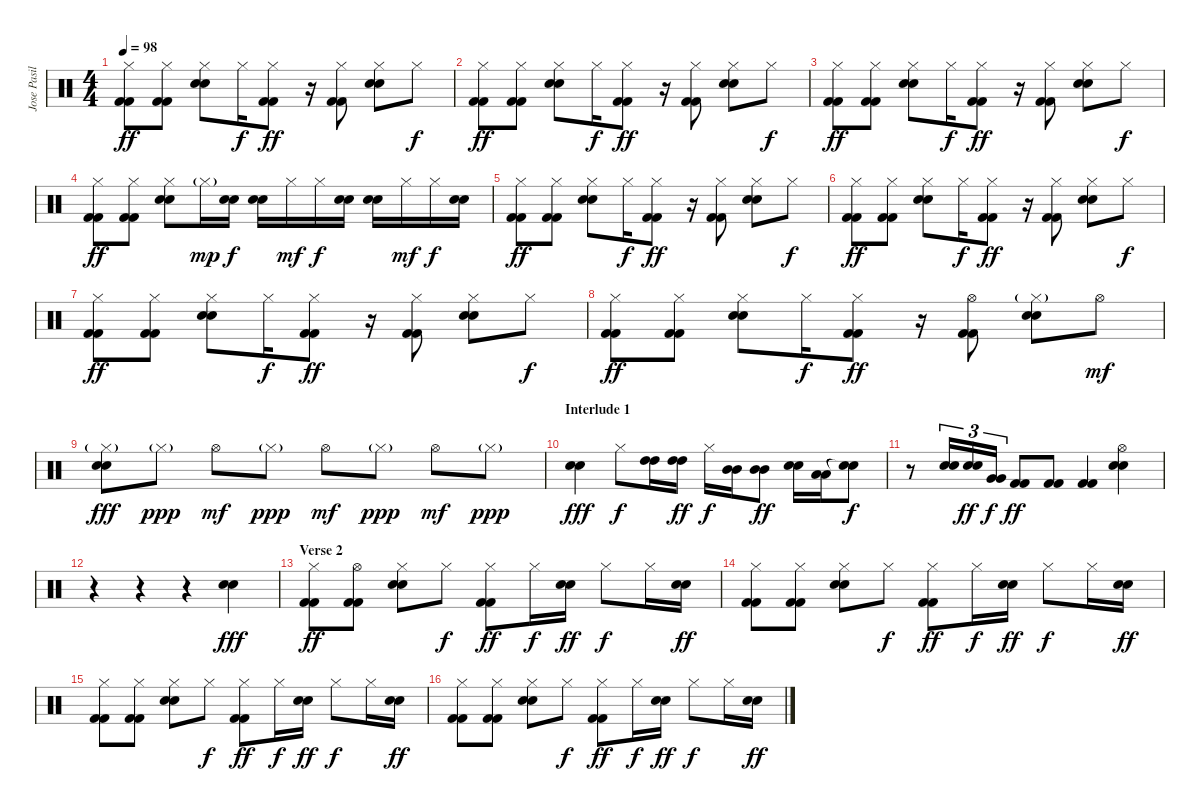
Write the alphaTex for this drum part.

\track ("Jose Pasillas - Drums" "Jose Pasil") {instrument percussion}
\staff {score}
\articulation defaults
\ts (4 4)
\tempo 98
\clef neutral
\ks c
("Hi-Hat (closed)" "Kick (hit) 2" "Kick (hit) 2").8{dy ff} ("Hi-Hat (closed)" "Kick (hit) 2" "Kick (hit) 2").8 ("Hi-Hat (closed)" "Electric Snare (hit)" "Electric Snare (hit)").8 "Hi-Hat (closed)".16{dy f} ("Hi-Hat (closed)" "Kick (hit) 2" "Kick (hit) 2").8{dy ff} r.16 ("Hi-Hat (closed)" "Kick (hit) 2" "Kick (hit) 2").8 ("Hi-Hat (closed)" "Electric Snare (hit)" "Electric Snare (hit)").8 "Hi-Hat (closed)".8{dy f} |
("Hi-Hat (closed)" "Kick (hit) 2" "Kick (hit) 2").8{dy ff} ("Hi-Hat (closed)" "Kick (hit) 2" "Kick (hit) 2").8 ("Hi-Hat (closed)" "Electric Snare (hit)" "Electric Snare (hit)").8 "Hi-Hat (closed)".16{dy f} ("Hi-Hat (closed)" "Kick (hit) 2" "Kick (hit) 2").8{dy ff} r.16 ("Hi-Hat (closed)" "Kick (hit) 2" "Kick (hit) 2").8 ("Hi-Hat (closed)" "Electric Snare (hit)" "Electric Snare (hit)").8 "Hi-Hat (closed)".8{dy f} |
("Hi-Hat (closed)" "Kick (hit) 2" "Kick (hit) 2").8{dy ff} ("Hi-Hat (closed)" "Kick (hit) 2" "Kick (hit) 2").8 ("Hi-Hat (closed)" "Electric Snare (hit)" "Electric Snare (hit)").8 "Hi-Hat (closed)".16{dy f} ("Hi-Hat (closed)" "Kick (hit) 2" "Kick (hit) 2").8{dy ff} r.16 ("Hi-Hat (closed)" "Kick (hit) 2" "Kick (hit) 2").8 ("Hi-Hat (closed)" "Electric Snare (hit)" "Electric Snare (hit)").8 "Hi-Hat (closed)".8{dy f} |
("Hi-Hat (closed)" "Kick (hit) 2" "Kick (hit) 2").8{dy ff} ("Hi-Hat (closed)" "Kick (hit) 2" "Kick (hit) 2").8 ("Hi-Hat (closed)" "Electric Snare (hit)" "Electric Snare (hit)").8 "Hi-Hat (closed)"{g}.16{dy mp} ("Electric Snare (hit)" "Electric Snare (hit)").16{dy f} ("Electric Snare (hit)" "Electric Snare (hit)").16 "Hi-Hat (closed)".16{dy mf} "Hi-Hat (closed)".16{dy f} ("Electric Snare (hit)" "Electric Snare (hit)").16 ("Electric Snare (hit)" "Electric Snare (hit)").16 "Hi-Hat (closed)".16{dy mf} "Hi-Hat (closed)".16{dy f} ("Electric Snare (hit)" "Electric Snare (hit)").16 |
("Hi-Hat (closed)" "Kick (hit) 2" "Kick (hit) 2").8{dy ff} ("Hi-Hat (closed)" "Kick (hit) 2" "Kick (hit) 2").8 ("Hi-Hat (closed)" "Electric Snare (hit)" "Electric Snare (hit)").8 "Hi-Hat (closed)".16{dy f} ("Hi-Hat (closed)" "Kick (hit) 2" "Kick (hit) 2").8{dy ff} r.16 ("Hi-Hat (closed)" "Kick (hit) 2" "Kick (hit) 2").8 ("Hi-Hat (closed)" "Electric Snare (hit)" "Electric Snare (hit)").8 "Hi-Hat (closed)".8{dy f} |
("Hi-Hat (closed)" "Kick (hit) 2" "Kick (hit) 2").8{dy ff} ("Hi-Hat (closed)" "Kick (hit) 2" "Kick (hit) 2").8 ("Hi-Hat (closed)" "Electric Snare (hit)" "Electric Snare (hit)").8 "Hi-Hat (closed)".16{dy f} ("Hi-Hat (closed)" "Kick (hit) 2" "Kick (hit) 2").8{dy ff} r.16 ("Hi-Hat (closed)" "Kick (hit) 2" "Kick (hit) 2").8 ("Hi-Hat (closed)" "Electric Snare (hit)" "Electric Snare (hit)").8 "Hi-Hat (closed)".8{dy f} |
("Hi-Hat (closed)" "Kick (hit) 2" "Kick (hit) 2").8{dy ff} ("Hi-Hat (closed)" "Kick (hit) 2" "Kick (hit) 2").8 ("Hi-Hat (closed)" "Electric Snare (hit)" "Electric Snare (hit)").8 "Hi-Hat (closed)".16{dy f} ("Hi-Hat (closed)" "Kick (hit) 2" "Kick (hit) 2").8{dy ff} r.16 ("Hi-Hat (closed)" "Kick (hit) 2" "Kick (hit) 2").8 ("Hi-Hat (closed)" "Electric Snare (hit)" "Electric Snare (hit)").8 "Hi-Hat (closed)".8{dy f} |
("Hi-Hat (closed)" "Kick (hit) 2" "Kick (hit) 2").8{dy ff} ("Hi-Hat (closed)" "Kick (hit) 2" "Kick (hit) 2").8 ("Hi-Hat (closed)" "Electric Snare (hit)" "Electric Snare (hit)").8 "Hi-Hat (closed)".16{dy f} ("Hi-Hat (closed)" "Kick (hit) 2" "Kick (hit) 2").8{dy ff} r.16 ("Hi-Hat (open)" "Kick (hit) 2" "Kick (hit) 2").8 ("Hi-Hat (closed)"{g} "Electric Snare (hit)" "Electric Snare (hit)").8 "Hi-Hat (open)".8{dy mf} |
("Hi-Hat (closed)"{g} "Electric Snare (hit)" "Electric Snare (hit)").8{dy fff} "Hi-Hat (closed)"{g}.8{dy ppp} "Hi-Hat (open)".8{dy mf} "Hi-Hat (closed)"{g}.8{dy ppp} "Hi-Hat (open)".8{dy mf} "Hi-Hat (closed)"{g}.8{dy ppp} "Hi-Hat (open)".8{dy mf} "Hi-Hat (closed)"{g}.8{dy ppp} |
\section ("" "Interlude 1")
("Electric Snare (hit)" "Electric Snare (hit)").4{dy fff} "Hi-Hat (closed)".8{dy f} ("High Tom (hit)" "High Tom (hit)").16 ("High Tom (hit)" "High Tom (hit)").16{dy ff} "Hi-Hat (closed)".16{dy f} ("Mid Tom (hit)" "Mid Tom (hit)").16 ("Mid Tom (hit)" "Mid Tom (hit)").8{dy ff} ("Electric Snare (hit)" "Electric Snare (hit)").16 ("Low Tom (hit)" "Low Tom (hit)").16 ("Snare (hit)"{t} "Snare (hit)"{t}).8{dy f} |
r.8 ("Electric Snare (hit)" "Electric Snare (hit)").16{tu (3 2)} ("Electric Snare (hit)" "Electric Snare (hit)").16{tu (3 2) dy ff} ("Very Low Tom (hit)" "Very Low Tom (hit)").16{tu (3 2) dy f} ("Kick (hit) 2" "Kick (hit) 2").8{dy ff} ("Kick (hit) 2" "Kick (hit) 2").8 ("Kick (hit) 2" "Kick (hit) 2").4 ("Hi-Hat (open)" "Electric Snare (hit)" "Electric Snare (hit)").4 |
r.4 r.4 r.4 ("Electric Snare (hit)" "Electric Snare (hit)").4{dy fff} |
\section ("" "Verse 2")
("Hi-Hat (closed)" "Kick (hit) 2" "Kick (hit) 2").8{dy ff} ("Hi-Hat (open)" "Kick (hit) 2" "Kick (hit) 2").8 ("Hi-Hat (closed)" "Electric Snare (hit)" "Electric Snare (hit)").8 "Hi-Hat (closed)".8{dy f} ("Hi-Hat (closed)" "Kick (hit) 2" "Kick (hit) 2").8{dy ff} "Hi-Hat (closed)".16{dy f} ("Electric Snare (hit)" "Electric Snare (hit)").16{dy ff} "Hi-Hat (closed)".8{dy f} "Hi-Hat (closed)".16 ("Electric Snare (hit)" "Electric Snare (hit)").16{dy ff} |
("Hi-Hat (closed)" "Kick (hit) 2" "Kick (hit) 2").8 ("Hi-Hat (closed)" "Kick (hit) 2" "Kick (hit) 2").8 ("Hi-Hat (closed)" "Electric Snare (hit)" "Electric Snare (hit)").8 "Hi-Hat (closed)".8{dy f} ("Hi-Hat (closed)" "Kick (hit) 2" "Kick (hit) 2").8{dy ff} "Hi-Hat (closed)".16{dy f} ("Electric Snare (hit)" "Electric Snare (hit)").16{dy ff} "Hi-Hat (closed)".8{dy f} "Hi-Hat (closed)".16 ("Electric Snare (hit)" "Electric Snare (hit)").16{dy ff} |
("Hi-Hat (closed)" "Kick (hit) 2" "Kick (hit) 2").8 ("Hi-Hat (closed)" "Kick (hit) 2" "Kick (hit) 2").8 ("Hi-Hat (closed)" "Electric Snare (hit)" "Electric Snare (hit)").8 "Hi-Hat (closed)".8{dy f} ("Hi-Hat (closed)" "Kick (hit) 2" "Kick (hit) 2").8{dy ff} "Hi-Hat (closed)".16{dy f} ("Electric Snare (hit)" "Electric Snare (hit)").16{dy ff} "Hi-Hat (closed)".8{dy f} "Hi-Hat (closed)".16 ("Electric Snare (hit)" "Electric Snare (hit)").16{dy ff} |
("Hi-Hat (closed)" "Kick (hit) 2" "Kick (hit) 2").8 ("Hi-Hat (closed)" "Kick (hit) 2" "Kick (hit) 2").8 ("Hi-Hat (closed)" "Electric Snare (hit)" "Electric Snare (hit)").8 "Hi-Hat (closed)".8{dy f} ("Hi-Hat (closed)" "Kick (hit) 2" "Kick (hit) 2").8{dy ff} "Hi-Hat (closed)".16{dy f} ("Electric Snare (hit)" "Electric Snare (hit)").16{dy ff} "Hi-Hat (closed)".8{dy f} "Hi-Hat (closed)".16 ("Electric Snare (hit)" "Electric Snare (hit)").16{dy ff}
